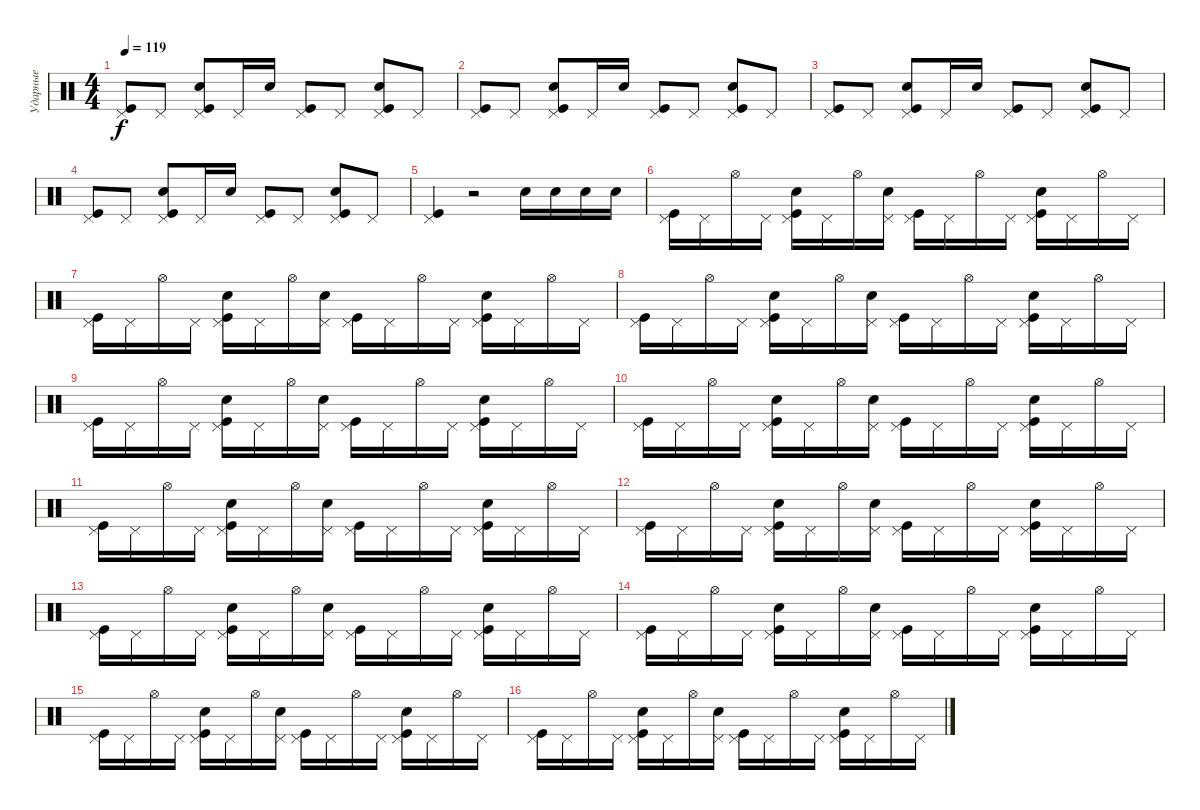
\track ("Ударные" "Ударные") {instrument percussion}
\staff {score}
\articulation defaults
\ts (4 4)
\tempo 119
\clef neutral
\ks c
("Kick (hit)" "Pedal Hi-Hat (hit)").8{dy f} "Pedal Hi-Hat (hit)".8 ("Kick (hit)" "Snare (hit) 2" "Pedal Hi-Hat (hit)").8 "Pedal Hi-Hat (hit)".16 "Snare (hit) 2".16 ("Kick (hit)" "Pedal Hi-Hat (hit)").8 "Pedal Hi-Hat (hit)".8 ("Kick (hit)" "Snare (hit) 2" "Pedal Hi-Hat (hit)").8 "Pedal Hi-Hat (hit)".8 |
("Kick (hit)" "Pedal Hi-Hat (hit)").8 "Pedal Hi-Hat (hit)".8 ("Kick (hit)" "Snare (hit) 2" "Pedal Hi-Hat (hit)").8 "Pedal Hi-Hat (hit)".16 "Snare (hit) 2".16 ("Kick (hit)" "Pedal Hi-Hat (hit)").8 "Pedal Hi-Hat (hit)".8 ("Kick (hit)" "Snare (hit) 2" "Pedal Hi-Hat (hit)").8 "Pedal Hi-Hat (hit)".8 |
("Kick (hit)" "Pedal Hi-Hat (hit)").8 "Pedal Hi-Hat (hit)".8 ("Kick (hit)" "Snare (hit) 2" "Pedal Hi-Hat (hit)").8 "Pedal Hi-Hat (hit)".16 "Snare (hit) 2".16 ("Kick (hit)" "Pedal Hi-Hat (hit)").8 "Pedal Hi-Hat (hit)".8 ("Kick (hit)" "Snare (hit) 2" "Pedal Hi-Hat (hit)").8 "Pedal Hi-Hat (hit)".8 |
("Kick (hit)" "Pedal Hi-Hat (hit)").8 "Pedal Hi-Hat (hit)".8 ("Kick (hit)" "Snare (hit) 2" "Pedal Hi-Hat (hit)").8 "Pedal Hi-Hat (hit)".16 "Snare (hit) 2".16 ("Kick (hit)" "Pedal Hi-Hat (hit)").8 "Pedal Hi-Hat (hit)".8 ("Kick (hit)" "Snare (hit) 2" "Pedal Hi-Hat (hit)").8 "Pedal Hi-Hat (hit)".8 |
("Kick (hit)" "Pedal Hi-Hat (hit)").4 r.2 "Electric Snare (hit)".16 "Electric Snare (hit)".16 "Electric Snare (hit)".16 "Electric Snare (hit)".16 |
("Kick (hit)" "Pedal Hi-Hat (hit)").16 "Pedal Hi-Hat (hit)".16 "Hi-Hat (open)".16 "Pedal Hi-Hat (hit)".16 ("Kick (hit)" "Electric Snare (hit)" "Pedal Hi-Hat (hit)").16 "Pedal Hi-Hat (hit)".16 "Hi-Hat (open)".16 ("Electric Snare (hit)" "Pedal Hi-Hat (hit)").16 ("Kick (hit)" "Pedal Hi-Hat (hit)").16 "Pedal Hi-Hat (hit)".16 "Hi-Hat (open)".16 "Pedal Hi-Hat (hit)".16 ("Kick (hit)" "Electric Snare (hit)" "Pedal Hi-Hat (hit)").16 "Pedal Hi-Hat (hit)".16 "Hi-Hat (open)".16 "Pedal Hi-Hat (hit)".16 |
("Kick (hit)" "Pedal Hi-Hat (hit)").16 "Pedal Hi-Hat (hit)".16 "Hi-Hat (open)".16 "Pedal Hi-Hat (hit)".16 ("Kick (hit)" "Electric Snare (hit)" "Pedal Hi-Hat (hit)").16 "Pedal Hi-Hat (hit)".16 "Hi-Hat (open)".16 ("Electric Snare (hit)" "Pedal Hi-Hat (hit)").16 ("Kick (hit)" "Pedal Hi-Hat (hit)").16 "Pedal Hi-Hat (hit)".16 "Hi-Hat (open)".16 "Pedal Hi-Hat (hit)".16 ("Kick (hit)" "Electric Snare (hit)" "Pedal Hi-Hat (hit)").16 "Pedal Hi-Hat (hit)".16 "Hi-Hat (open)".16 "Pedal Hi-Hat (hit)".16 |
("Kick (hit)" "Pedal Hi-Hat (hit)").16 "Pedal Hi-Hat (hit)".16 "Hi-Hat (open)".16 "Pedal Hi-Hat (hit)".16 ("Kick (hit)" "Electric Snare (hit)" "Pedal Hi-Hat (hit)").16 "Pedal Hi-Hat (hit)".16 "Hi-Hat (open)".16 ("Electric Snare (hit)" "Pedal Hi-Hat (hit)").16 ("Kick (hit)" "Pedal Hi-Hat (hit)").16 "Pedal Hi-Hat (hit)".16 "Hi-Hat (open)".16 "Pedal Hi-Hat (hit)".16 ("Kick (hit)" "Electric Snare (hit)" "Pedal Hi-Hat (hit)").16 "Pedal Hi-Hat (hit)".16 "Hi-Hat (open)".16 "Pedal Hi-Hat (hit)".16 |
("Kick (hit)" "Pedal Hi-Hat (hit)").16 "Pedal Hi-Hat (hit)".16 "Hi-Hat (open)".16 "Pedal Hi-Hat (hit)".16 ("Kick (hit)" "Electric Snare (hit)" "Pedal Hi-Hat (hit)").16 "Pedal Hi-Hat (hit)".16 "Hi-Hat (open)".16 ("Electric Snare (hit)" "Pedal Hi-Hat (hit)").16 ("Kick (hit)" "Pedal Hi-Hat (hit)").16 "Pedal Hi-Hat (hit)".16 "Hi-Hat (open)".16 "Pedal Hi-Hat (hit)".16 ("Kick (hit)" "Electric Snare (hit)" "Pedal Hi-Hat (hit)").16 "Pedal Hi-Hat (hit)".16 "Hi-Hat (open)".16 "Pedal Hi-Hat (hit)".16 |
("Kick (hit)" "Pedal Hi-Hat (hit)").16 "Pedal Hi-Hat (hit)".16 "Hi-Hat (open)".16 "Pedal Hi-Hat (hit)".16 ("Kick (hit)" "Electric Snare (hit)" "Pedal Hi-Hat (hit)").16 "Pedal Hi-Hat (hit)".16 "Hi-Hat (open)".16 ("Electric Snare (hit)" "Pedal Hi-Hat (hit)").16 ("Kick (hit)" "Pedal Hi-Hat (hit)").16 "Pedal Hi-Hat (hit)".16 "Hi-Hat (open)".16 "Pedal Hi-Hat (hit)".16 ("Kick (hit)" "Electric Snare (hit)" "Pedal Hi-Hat (hit)").16 "Pedal Hi-Hat (hit)".16 "Hi-Hat (open)".16 "Pedal Hi-Hat (hit)".16 |
("Kick (hit)" "Pedal Hi-Hat (hit)").16 "Pedal Hi-Hat (hit)".16 "Hi-Hat (open)".16 "Pedal Hi-Hat (hit)".16 ("Kick (hit)" "Electric Snare (hit)" "Pedal Hi-Hat (hit)").16 "Pedal Hi-Hat (hit)".16 "Hi-Hat (open)".16 ("Electric Snare (hit)" "Pedal Hi-Hat (hit)").16 ("Kick (hit)" "Pedal Hi-Hat (hit)").16 "Pedal Hi-Hat (hit)".16 "Hi-Hat (open)".16 "Pedal Hi-Hat (hit)".16 ("Kick (hit)" "Electric Snare (hit)" "Pedal Hi-Hat (hit)").16 "Pedal Hi-Hat (hit)".16 "Hi-Hat (open)".16 "Pedal Hi-Hat (hit)".16 |
("Kick (hit)" "Pedal Hi-Hat (hit)").16 "Pedal Hi-Hat (hit)".16 "Hi-Hat (open)".16 "Pedal Hi-Hat (hit)".16 ("Kick (hit)" "Electric Snare (hit)" "Pedal Hi-Hat (hit)").16 "Pedal Hi-Hat (hit)".16 "Hi-Hat (open)".16 ("Electric Snare (hit)" "Pedal Hi-Hat (hit)").16 ("Kick (hit)" "Pedal Hi-Hat (hit)").16 "Pedal Hi-Hat (hit)".16 "Hi-Hat (open)".16 "Pedal Hi-Hat (hit)".16 ("Kick (hit)" "Electric Snare (hit)" "Pedal Hi-Hat (hit)").16 "Pedal Hi-Hat (hit)".16 "Hi-Hat (open)".16 "Pedal Hi-Hat (hit)".16 |
("Kick (hit)" "Pedal Hi-Hat (hit)").16 "Pedal Hi-Hat (hit)".16 "Hi-Hat (open)".16 "Pedal Hi-Hat (hit)".16 ("Kick (hit)" "Electric Snare (hit)" "Pedal Hi-Hat (hit)").16 "Pedal Hi-Hat (hit)".16 "Hi-Hat (open)".16 ("Electric Snare (hit)" "Pedal Hi-Hat (hit)").16 ("Kick (hit)" "Pedal Hi-Hat (hit)").16 "Pedal Hi-Hat (hit)".16 "Hi-Hat (open)".16 "Pedal Hi-Hat (hit)".16 ("Kick (hit)" "Electric Snare (hit)" "Pedal Hi-Hat (hit)").16 "Pedal Hi-Hat (hit)".16 "Hi-Hat (open)".16 "Pedal Hi-Hat (hit)".16 |
("Kick (hit)" "Pedal Hi-Hat (hit)").16 "Pedal Hi-Hat (hit)".16 "Hi-Hat (open)".16 "Pedal Hi-Hat (hit)".16 ("Kick (hit)" "Electric Snare (hit)" "Pedal Hi-Hat (hit)").16 "Pedal Hi-Hat (hit)".16 "Hi-Hat (open)".16 ("Electric Snare (hit)" "Pedal Hi-Hat (hit)").16 ("Kick (hit)" "Pedal Hi-Hat (hit)").16 "Pedal Hi-Hat (hit)".16 "Hi-Hat (open)".16 "Pedal Hi-Hat (hit)".16 ("Kick (hit)" "Electric Snare (hit)" "Pedal Hi-Hat (hit)").16 "Pedal Hi-Hat (hit)".16 "Hi-Hat (open)".16 "Pedal Hi-Hat (hit)".16 |
("Kick (hit)" "Pedal Hi-Hat (hit)").16 "Pedal Hi-Hat (hit)".16 "Hi-Hat (open)".16 "Pedal Hi-Hat (hit)".16 ("Kick (hit)" "Electric Snare (hit)" "Pedal Hi-Hat (hit)").16 "Pedal Hi-Hat (hit)".16 "Hi-Hat (open)".16 ("Electric Snare (hit)" "Pedal Hi-Hat (hit)").16 ("Kick (hit)" "Pedal Hi-Hat (hit)").16 "Pedal Hi-Hat (hit)".16 "Hi-Hat (open)".16 "Pedal Hi-Hat (hit)".16 ("Kick (hit)" "Electric Snare (hit)" "Pedal Hi-Hat (hit)").16 "Pedal Hi-Hat (hit)".16 "Hi-Hat (open)".16 "Pedal Hi-Hat (hit)".16 |
("Kick (hit)" "Pedal Hi-Hat (hit)").16 "Pedal Hi-Hat (hit)".16 "Hi-Hat (open)".16 "Pedal Hi-Hat (hit)".16 ("Kick (hit)" "Electric Snare (hit)" "Pedal Hi-Hat (hit)").16 "Pedal Hi-Hat (hit)".16 "Hi-Hat (open)".16 ("Electric Snare (hit)" "Pedal Hi-Hat (hit)").16 ("Kick (hit)" "Pedal Hi-Hat (hit)").16 "Pedal Hi-Hat (hit)".16 "Hi-Hat (open)".16 "Pedal Hi-Hat (hit)".16 ("Kick (hit)" "Electric Snare (hit)" "Pedal Hi-Hat (hit)").16 "Pedal Hi-Hat (hit)".16 "Hi-Hat (open)".16 "Pedal Hi-Hat (hit)".16
